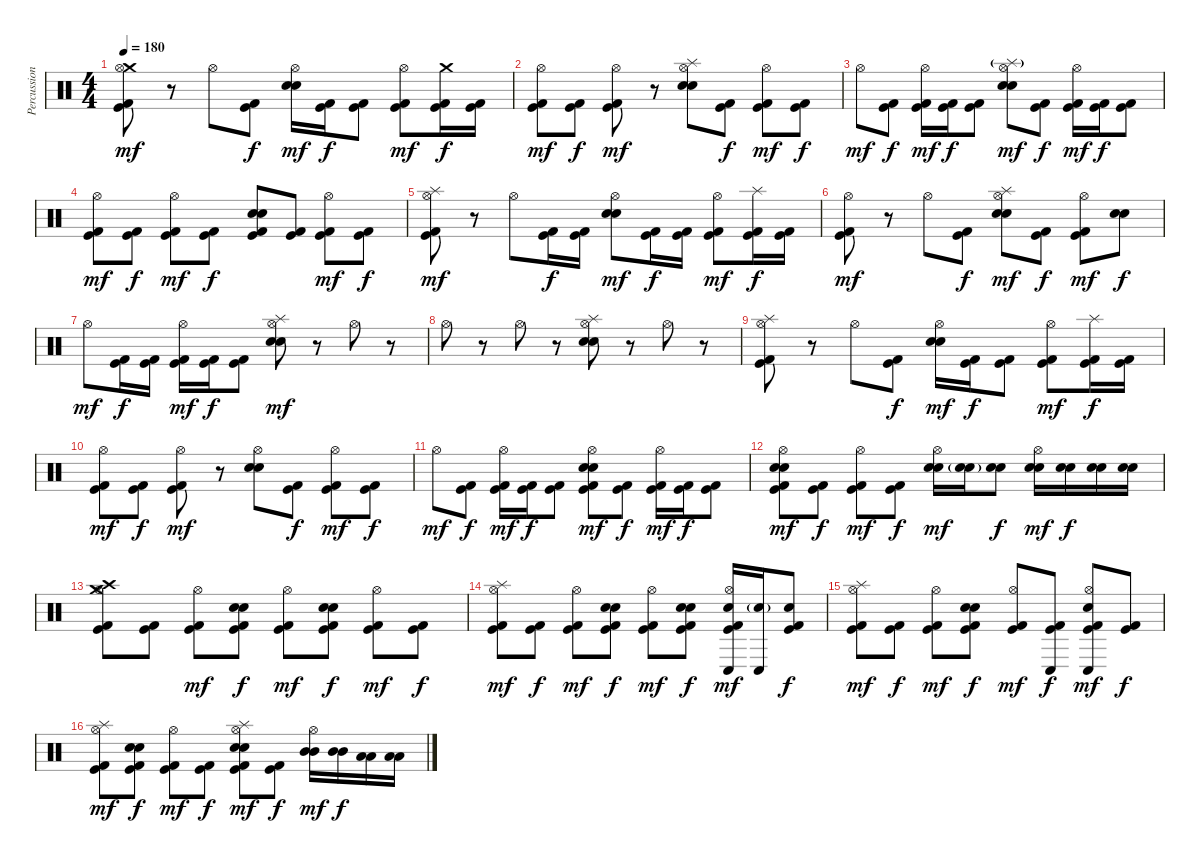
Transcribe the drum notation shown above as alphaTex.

\track ("Percussion" "Percussion") {instrument percussion}
\staff {score}
\articulation defaults
\ts (4 4)
\tempo 180
\clef neutral
\ks c
("Crash medium (hit)" "Hi-Hat (open)" "Kick (hit) 2" "Kick (hit)").8{dy mf} r.8 "Hi-Hat (open)".8 ("Kick (hit) 2" "Kick (hit)").8{dy f} ("Hi-Hat (open)" "Electric Snare (hit)" "Electric Snare (hit)").16{dy mf} ("Kick (hit) 2" "Kick (hit)").16{dy f} ("Kick (hit) 2" "Kick (hit)").8 ("Hi-Hat (open)" "Kick (hit) 2" "Kick (hit)").8{dy mf} ("Crash medium (hit)" "Kick (hit) 2" "Kick (hit)").16{dy f} ("Kick (hit) 2" "Kick (hit)").16 |
("Hi-Hat (open)" "Kick (hit) 2" "Kick (hit)").8{dy mf} ("Kick (hit) 2" "Kick (hit)").8{dy f} ("Hi-Hat (open)" "Kick (hit) 2" "Kick (hit)").8{dy mf} r.8 ("Splash (hit)" "Hi-Hat (open)" "Electric Snare (hit)" "Electric Snare (hit)").8 ("Kick (hit) 2" "Kick (hit)").8{dy f} ("Hi-Hat (open)" "Kick (hit) 2" "Kick (hit)").8{dy mf} ("Kick (hit) 2" "Kick (hit)").8{dy f} |
"Hi-Hat (open)".8{dy mf} ("Kick (hit) 2" "Kick (hit)").8{dy f} ("Hi-Hat (open)" "Kick (hit) 2" "Kick (hit)").16{dy mf} ("Kick (hit) 2" "Kick (hit)").16{dy f} ("Kick (hit) 2" "Kick (hit)").8 ("Splash (hit)"{g} "Hi-Hat (open)" "Electric Snare (hit)" "Electric Snare (hit)").8{dy mf} ("Kick (hit) 2" "Kick (hit)").8{dy f} ("Hi-Hat (open)" "Kick (hit) 2" "Kick (hit)").16{dy mf} ("Kick (hit) 2" "Kick (hit)").16{dy f} ("Kick (hit) 2" "Kick (hit)").8 |
("Hi-Hat (open)" "Kick (hit) 2" "Kick (hit)").8{dy mf} ("Kick (hit) 2" "Kick (hit)").8{dy f} ("Hi-Hat (open)" "Kick (hit) 2" "Kick (hit)").8{dy mf} ("Kick (hit) 2" "Kick (hit)").8{dy f} ("Electric Snare (hit)" "Electric Snare (hit)" "Kick (hit) 2" "Kick (hit)").8 ("Kick (hit) 2" "Kick (hit)").8 ("Hi-Hat (open)" "Kick (hit) 2" "Kick (hit)").8{dy mf} ("Kick (hit) 2" "Kick (hit)").8{dy f} |
("Splash (hit)" "Hi-Hat (open)" "Kick (hit) 2" "Kick (hit)").8{dy mf} r.8 "Hi-Hat (open)".8 ("Kick (hit) 2" "Kick (hit)").16{dy f} ("Kick (hit) 2" "Kick (hit)").16 ("Hi-Hat (open)" "Electric Snare (hit)" "Electric Snare (hit)").8{dy mf} ("Kick (hit) 2" "Kick (hit)").16{dy f} ("Kick (hit) 2" "Kick (hit)").16 ("Hi-Hat (open)" "Kick (hit) 2" "Kick (hit)").8{dy mf} ("Splash (hit)" "Kick (hit) 2" "Kick (hit)").16{dy f} ("Kick (hit) 2" "Kick (hit)").16 |
("Hi-Hat (open)" "Kick (hit) 2" "Kick (hit)").8{dy mf} r.8 "Hi-Hat (open)".8 ("Kick (hit) 2" "Kick (hit)").8{dy f} ("Splash (hit)" "Hi-Hat (open)" "Electric Snare (hit)" "Electric Snare (hit)").8{dy mf} ("Kick (hit) 2" "Kick (hit)").8{dy f} ("Hi-Hat (open)" "Kick (hit) 2" "Kick (hit)").8{dy mf} ("Electric Snare (hit)" "Electric Snare (hit)").8{dy f} |
"Hi-Hat (open)".8{dy mf} ("Kick (hit) 2" "Kick (hit)").16{dy f} ("Kick (hit) 2" "Kick (hit)").16 ("Hi-Hat (open)" "Kick (hit) 2" "Kick (hit)").16{dy mf} ("Kick (hit) 2" "Kick (hit)").16{dy f} ("Kick (hit) 2" "Kick (hit)").8 ("Splash (hit)" "Hi-Hat (open)" "Electric Snare (hit)" "Electric Snare (hit)").8{dy mf} r.8 "Hi-Hat (open)".8 r.8 |
"Hi-Hat (open)".8 r.8 "Hi-Hat (open)".8 r.8 ("Splash (hit)" "Hi-Hat (open)" "Electric Snare (hit)" "Electric Snare (hit)").8 r.8 "Hi-Hat (open)".8 r.8 |
("Splash (hit)" "Hi-Hat (open)" "Kick (hit) 2" "Kick (hit)").8 r.8 "Hi-Hat (open)".8 ("Kick (hit) 2" "Kick (hit)").8{dy f} ("Hi-Hat (open)" "Electric Snare (hit)" "Electric Snare (hit)").16{dy mf} ("Kick (hit) 2" "Kick (hit)").16{dy f} ("Kick (hit) 2" "Kick (hit)").8 ("Hi-Hat (open)" "Kick (hit) 2" "Kick (hit)").8{dy mf} ("Splash (hit)" "Kick (hit) 2" "Kick (hit)").16{dy f} ("Kick (hit) 2" "Kick (hit)").16 |
("Hi-Hat (open)" "Kick (hit) 2" "Kick (hit)").8{dy mf} ("Kick (hit) 2" "Kick (hit)").8{dy f} ("Hi-Hat (open)" "Kick (hit) 2" "Kick (hit)").8{dy mf} r.8 ("Hi-Hat (open)" "Electric Snare (hit)" "Electric Snare (hit)").8 ("Kick (hit) 2" "Kick (hit)").8{dy f} ("Hi-Hat (open)" "Kick (hit) 2" "Kick (hit)").8{dy mf} ("Kick (hit) 2" "Kick (hit)").8{dy f} |
"Hi-Hat (open)".8{dy mf} ("Kick (hit) 2" "Kick (hit)").8{dy f} ("Hi-Hat (open)" "Kick (hit) 2" "Kick (hit)").16{dy mf} ("Kick (hit) 2" "Kick (hit)").16{dy f} ("Kick (hit) 2" "Kick (hit)").8 ("Hi-Hat (open)" "Electric Snare (hit)" "Electric Snare (hit)" "Kick (hit) 2" "Kick (hit)").8{dy mf} ("Kick (hit) 2" "Kick (hit)").8{dy f} ("Hi-Hat (open)" "Kick (hit) 2" "Kick (hit)").16{dy mf} ("Kick (hit) 2" "Kick (hit)").16{dy f} ("Kick (hit) 2" "Kick (hit)").8 |
("Hi-Hat (open)" "Electric Snare (hit)" "Electric Snare (hit)" "Kick (hit) 2" "Kick (hit)").8{dy mf} ("Kick (hit) 2" "Kick (hit)").8{dy f} ("Hi-Hat (open)" "Kick (hit) 2" "Kick (hit)").8{dy mf} ("Kick (hit) 2" "Kick (hit)").8{dy f} ("Hi-Hat (open)" "Electric Snare (hit)" "Electric Snare (hit)").16{dy mf} ("Electric Snare (hit)"{g} "Electric Snare (hit)"{g}).16 ("Electric Snare (hit)" "Electric Snare (hit)").8{dy f} ("Hi-Hat (open)" "Electric Snare (hit)" "Electric Snare (hit)").16{dy mf} ("Electric Snare (hit)" "Electric Snare (hit)").16{dy f} ("Electric Snare (hit)" "Electric Snare (hit)").16 ("Electric Snare (hit)" "Electric Snare (hit)").16 |
("Crash medium (hit)" "Crash high (hit)" "Hi-Hat (open)" "Kick (hit) 2" "Kick (hit)").8 ("Kick (hit) 2" "Kick (hit)").8 ("Hi-Hat (open)" "Kick (hit) 2" "Kick (hit)").8{dy mf} ("Electric Snare (hit)" "Electric Snare (hit)" "Kick (hit) 2" "Kick (hit)").8{dy f} ("Hi-Hat (open)" "Kick (hit) 2" "Kick (hit)").8{dy mf} ("Electric Snare (hit)" "Electric Snare (hit)" "Kick (hit) 2" "Kick (hit)").8{dy f} ("Hi-Hat (open)" "Kick (hit) 2" "Kick (hit)").8{dy mf} ("Kick (hit) 2" "Kick (hit)").8{dy f} |
("Splash (hit)" "Hi-Hat (open)" "Kick (hit) 2" "Kick (hit)").8{dy mf} ("Kick (hit) 2" "Kick (hit)").8{dy f} ("Hi-Hat (open)" "Kick (hit) 2" "Kick (hit)").8{dy mf} ("Electric Snare (hit)" "Electric Snare (hit)" "Kick (hit) 2" "Kick (hit)").8{dy f} ("Hi-Hat (open)" "Kick (hit) 2" "Kick (hit)").8{dy mf} ("Electric Snare (hit)" "Electric Snare (hit)" "Kick (hit) 2" "Kick (hit)").8{dy f} ("Hi-Hat (open)" "Conga low (hit)" "Electric Snare (hit)" "Kick (hit) 2" "Kick (hit)").16{dy mf} ("Conga low (hit)" "Electric Snare (hit)"{g}).16 ("Electric Snare (hit)" "Kick (hit) 2" "Kick (hit)").8{dy f} |
("Splash (hit)" "Hi-Hat (open)" "Kick (hit) 2" "Kick (hit)").8{dy mf} ("Kick (hit) 2" "Kick (hit)").8{dy f} ("Hi-Hat (open)" "Kick (hit) 2" "Kick (hit)").8{dy mf} ("Electric Snare (hit)" "Electric Snare (hit)" "Kick (hit) 2" "Kick (hit)").8{dy f} ("Hi-Hat (open)" "Kick (hit) 2" "Kick (hit)").8{dy mf} ("Conga low (hit)" "Kick (hit) 2" "Kick (hit)").8{dy f} ("Hi-Hat (open)" "Conga low (hit)" "Electric Snare (hit)" "Kick (hit) 2" "Kick (hit)").8{dy mf} ("Kick (hit) 2" "Kick (hit)").8{dy f} |
("Splash (hit)" "Hi-Hat (open)" "Kick (hit) 2" "Kick (hit)").8{dy mf} ("Electric Snare (hit)" "Electric Snare (hit)" "Kick (hit) 2" "Kick (hit)").8{dy f} ("Hi-Hat (open)" "Kick (hit) 2" "Kick (hit)").8{dy mf} ("Kick (hit) 2" "Kick (hit)").8{dy f} ("Splash (hit)" "Hi-Hat (open)" "Electric Snare (hit)" "Electric Snare (hit)" "Kick (hit) 2" "Kick (hit)").8{dy mf} ("Kick (hit) 2" "Kick (hit)").8{dy f} ("Hi-Hat (open)" "Mid Tom (hit)" "Mid Tom (hit)").16{dy mf} ("Mid Tom (hit)" "Mid Tom (hit)").16{dy f} ("Low Tom (hit)" "Low Tom (hit)").16 ("Low Tom (hit)" "Low Tom (hit)").16
